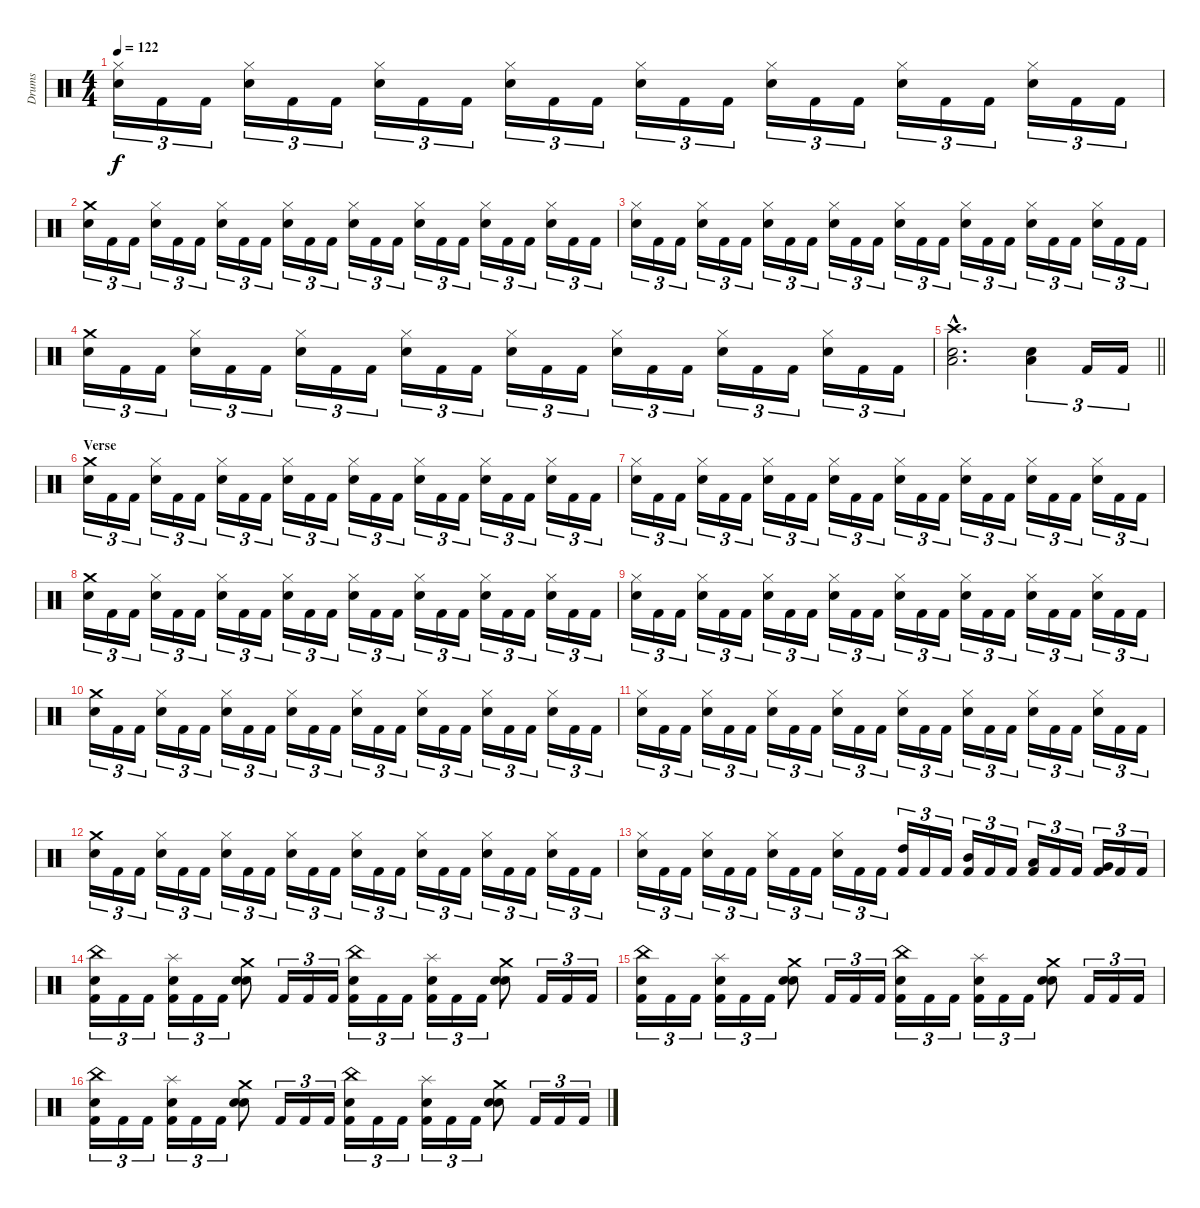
\track ("Drums" "Drums") {instrument percussion}
\staff {score}
\articulation defaults
\ts (4 4)
\tempo 122
\clef neutral
\ks c
("Hi-Hat (closed)" "Electric Snare (hit)").16{tu (3 2) dy f} "Kick (hit) 2".16{tu (3 2)} "Kick (hit) 2".16{tu (3 2)} ("Hi-Hat (closed)" "Electric Snare (hit)").16{tu (3 2)} "Kick (hit) 2".16{tu (3 2)} "Kick (hit) 2".16{tu (3 2)} ("Hi-Hat (closed)" "Electric Snare (hit)").16{tu (3 2)} "Kick (hit) 2".16{tu (3 2)} "Kick (hit) 2".16{tu (3 2)} ("Hi-Hat (closed)" "Electric Snare (hit)").16{tu (3 2)} "Kick (hit) 2".16{tu (3 2)} "Kick (hit) 2".16{tu (3 2)} ("Hi-Hat (closed)" "Electric Snare (hit)").16{tu (3 2)} "Kick (hit) 2".16{tu (3 2)} "Kick (hit) 2".16{tu (3 2)} ("Hi-Hat (closed)" "Electric Snare (hit)").16{tu (3 2)} "Kick (hit) 2".16{tu (3 2)} "Kick (hit) 2".16{tu (3 2)} ("Hi-Hat (closed)" "Electric Snare (hit)").16{tu (3 2)} "Kick (hit) 2".16{tu (3 2)} "Kick (hit) 2".16{tu (3 2)} ("Hi-Hat (closed)" "Electric Snare (hit)").16{tu (3 2)} "Kick (hit) 2".16{tu (3 2)} "Kick (hit) 2".16{tu (3 2)} |
("Crash medium (hit)" "Electric Snare (hit)").16{tu (3 2)} "Kick (hit) 2".16{tu (3 2)} "Kick (hit) 2".16{tu (3 2)} ("Hi-Hat (closed)" "Electric Snare (hit)").16{tu (3 2)} "Kick (hit) 2".16{tu (3 2)} "Kick (hit) 2".16{tu (3 2)} ("Hi-Hat (closed)" "Electric Snare (hit)").16{tu (3 2)} "Kick (hit) 2".16{tu (3 2)} "Kick (hit) 2".16{tu (3 2)} ("Hi-Hat (closed)" "Electric Snare (hit)").16{tu (3 2)} "Kick (hit) 2".16{tu (3 2)} "Kick (hit) 2".16{tu (3 2)} ("Hi-Hat (closed)" "Electric Snare (hit)").16{tu (3 2)} "Kick (hit) 2".16{tu (3 2)} "Kick (hit) 2".16{tu (3 2)} ("Hi-Hat (closed)" "Electric Snare (hit)").16{tu (3 2)} "Kick (hit) 2".16{tu (3 2)} "Kick (hit) 2".16{tu (3 2)} ("Hi-Hat (closed)" "Electric Snare (hit)").16{tu (3 2)} "Kick (hit) 2".16{tu (3 2)} "Kick (hit) 2".16{tu (3 2)} ("Hi-Hat (closed)" "Electric Snare (hit)").16{tu (3 2)} "Kick (hit) 2".16{tu (3 2)} "Kick (hit) 2".16{tu (3 2)} |
("Hi-Hat (closed)" "Electric Snare (hit)").16{tu (3 2)} "Kick (hit) 2".16{tu (3 2)} "Kick (hit) 2".16{tu (3 2)} ("Hi-Hat (closed)" "Electric Snare (hit)").16{tu (3 2)} "Kick (hit) 2".16{tu (3 2)} "Kick (hit) 2".16{tu (3 2)} ("Hi-Hat (closed)" "Electric Snare (hit)").16{tu (3 2)} "Kick (hit) 2".16{tu (3 2)} "Kick (hit) 2".16{tu (3 2)} ("Hi-Hat (closed)" "Electric Snare (hit)").16{tu (3 2)} "Kick (hit) 2".16{tu (3 2)} "Kick (hit) 2".16{tu (3 2)} ("Hi-Hat (closed)" "Electric Snare (hit)").16{tu (3 2)} "Kick (hit) 2".16{tu (3 2)} "Kick (hit) 2".16{tu (3 2)} ("Hi-Hat (closed)" "Electric Snare (hit)").16{tu (3 2)} "Kick (hit) 2".16{tu (3 2)} "Kick (hit) 2".16{tu (3 2)} ("Hi-Hat (closed)" "Electric Snare (hit)").16{tu (3 2)} "Kick (hit) 2".16{tu (3 2)} "Kick (hit) 2".16{tu (3 2)} ("Hi-Hat (closed)" "Electric Snare (hit)").16{tu (3 2)} "Kick (hit) 2".16{tu (3 2)} "Kick (hit) 2".16{tu (3 2)} |
("Crash medium (hit)" "Electric Snare (hit)").16{tu (3 2)} "Kick (hit) 2".16{tu (3 2)} "Kick (hit) 2".16{tu (3 2)} ("Hi-Hat (closed)" "Electric Snare (hit)").16{tu (3 2)} "Kick (hit) 2".16{tu (3 2)} "Kick (hit) 2".16{tu (3 2)} ("Hi-Hat (closed)" "Electric Snare (hit)").16{tu (3 2)} "Kick (hit) 2".16{tu (3 2)} "Kick (hit) 2".16{tu (3 2)} ("Hi-Hat (closed)" "Electric Snare (hit)").16{tu (3 2)} "Kick (hit) 2".16{tu (3 2)} "Kick (hit) 2".16{tu (3 2)} ("Hi-Hat (closed)" "Electric Snare (hit)").16{tu (3 2)} "Kick (hit) 2".16{tu (3 2)} "Kick (hit) 2".16{tu (3 2)} ("Hi-Hat (closed)" "Electric Snare (hit)").16{tu (3 2)} "Kick (hit) 2".16{tu (3 2)} "Kick (hit) 2".16{tu (3 2)} ("Hi-Hat (closed)" "Electric Snare (hit)").16{tu (3 2)} "Kick (hit) 2".16{tu (3 2)} "Kick (hit) 2".16{tu (3 2)} ("Hi-Hat (closed)" "Electric Snare (hit)").16{tu (3 2)} "Kick (hit) 2".16{tu (3 2)} "Kick (hit) 2".16{tu (3 2)} |
\barLineRight lightlight
("Crash high (hit)"{hac} "Low Tom (hit)"{hac} "Electric Snare (hit)"{hac}).2{d} ("Low Floor Tom (hit)" "Electric Snare (hit)").4{tu (3 2)} "Kick (hit) 2".16{tu (3 2)} "Kick (hit) 2".16{tu (3 2)} |
\section ("" "Verse")
("Crash medium (hit)" "Electric Snare (hit)").16{tu (3 2)} "Kick (hit) 2".16{tu (3 2)} "Kick (hit) 2".16{tu (3 2)} ("Hi-Hat (closed)" "Electric Snare (hit)").16{tu (3 2)} "Kick (hit) 2".16{tu (3 2)} "Kick (hit) 2".16{tu (3 2)} ("Hi-Hat (closed)" "Electric Snare (hit)").16{tu (3 2)} "Kick (hit) 2".16{tu (3 2)} "Kick (hit) 2".16{tu (3 2)} ("Hi-Hat (closed)" "Electric Snare (hit)").16{tu (3 2)} "Kick (hit) 2".16{tu (3 2)} "Kick (hit) 2".16{tu (3 2)} ("Hi-Hat (closed)" "Electric Snare (hit)").16{tu (3 2)} "Kick (hit) 2".16{tu (3 2)} "Kick (hit) 2".16{tu (3 2)} ("Hi-Hat (closed)" "Electric Snare (hit)").16{tu (3 2)} "Kick (hit) 2".16{tu (3 2)} "Kick (hit) 2".16{tu (3 2)} ("Hi-Hat (closed)" "Electric Snare (hit)").16{tu (3 2)} "Kick (hit) 2".16{tu (3 2)} "Kick (hit) 2".16{tu (3 2)} ("Hi-Hat (closed)" "Electric Snare (hit)").16{tu (3 2)} "Kick (hit) 2".16{tu (3 2)} "Kick (hit) 2".16{tu (3 2)} |
("Hi-Hat (closed)" "Electric Snare (hit)").16{tu (3 2)} "Kick (hit) 2".16{tu (3 2)} "Kick (hit) 2".16{tu (3 2)} ("Hi-Hat (closed)" "Electric Snare (hit)").16{tu (3 2)} "Kick (hit) 2".16{tu (3 2)} "Kick (hit) 2".16{tu (3 2)} ("Hi-Hat (closed)" "Electric Snare (hit)").16{tu (3 2)} "Kick (hit) 2".16{tu (3 2)} "Kick (hit) 2".16{tu (3 2)} ("Hi-Hat (closed)" "Electric Snare (hit)").16{tu (3 2)} "Kick (hit) 2".16{tu (3 2)} "Kick (hit) 2".16{tu (3 2)} ("Hi-Hat (closed)" "Electric Snare (hit)").16{tu (3 2)} "Kick (hit) 2".16{tu (3 2)} "Kick (hit) 2".16{tu (3 2)} ("Hi-Hat (closed)" "Electric Snare (hit)").16{tu (3 2)} "Kick (hit) 2".16{tu (3 2)} "Kick (hit) 2".16{tu (3 2)} ("Hi-Hat (closed)" "Electric Snare (hit)").16{tu (3 2)} "Kick (hit) 2".16{tu (3 2)} "Kick (hit) 2".16{tu (3 2)} ("Hi-Hat (closed)" "Electric Snare (hit)").16{tu (3 2)} "Kick (hit) 2".16{tu (3 2)} "Kick (hit) 2".16{tu (3 2)} |
("Crash medium (hit)" "Electric Snare (hit)").16{tu (3 2)} "Kick (hit) 2".16{tu (3 2)} "Kick (hit) 2".16{tu (3 2)} ("Hi-Hat (closed)" "Electric Snare (hit)").16{tu (3 2)} "Kick (hit) 2".16{tu (3 2)} "Kick (hit) 2".16{tu (3 2)} ("Hi-Hat (closed)" "Electric Snare (hit)").16{tu (3 2)} "Kick (hit) 2".16{tu (3 2)} "Kick (hit) 2".16{tu (3 2)} ("Hi-Hat (closed)" "Electric Snare (hit)").16{tu (3 2)} "Kick (hit) 2".16{tu (3 2)} "Kick (hit) 2".16{tu (3 2)} ("Hi-Hat (closed)" "Electric Snare (hit)").16{tu (3 2)} "Kick (hit) 2".16{tu (3 2)} "Kick (hit) 2".16{tu (3 2)} ("Hi-Hat (closed)" "Electric Snare (hit)").16{tu (3 2)} "Kick (hit) 2".16{tu (3 2)} "Kick (hit) 2".16{tu (3 2)} ("Hi-Hat (closed)" "Electric Snare (hit)").16{tu (3 2)} "Kick (hit) 2".16{tu (3 2)} "Kick (hit) 2".16{tu (3 2)} ("Hi-Hat (closed)" "Electric Snare (hit)").16{tu (3 2)} "Kick (hit) 2".16{tu (3 2)} "Kick (hit) 2".16{tu (3 2)} |
("Hi-Hat (closed)" "Electric Snare (hit)").16{tu (3 2)} "Kick (hit) 2".16{tu (3 2)} "Kick (hit) 2".16{tu (3 2)} ("Hi-Hat (closed)" "Electric Snare (hit)").16{tu (3 2)} "Kick (hit) 2".16{tu (3 2)} "Kick (hit) 2".16{tu (3 2)} ("Hi-Hat (closed)" "Electric Snare (hit)").16{tu (3 2)} "Kick (hit) 2".16{tu (3 2)} "Kick (hit) 2".16{tu (3 2)} ("Hi-Hat (closed)" "Electric Snare (hit)").16{tu (3 2)} "Kick (hit) 2".16{tu (3 2)} "Kick (hit) 2".16{tu (3 2)} ("Hi-Hat (closed)" "Electric Snare (hit)").16{tu (3 2)} "Kick (hit) 2".16{tu (3 2)} "Kick (hit) 2".16{tu (3 2)} ("Hi-Hat (closed)" "Electric Snare (hit)").16{tu (3 2)} "Kick (hit) 2".16{tu (3 2)} "Kick (hit) 2".16{tu (3 2)} ("Hi-Hat (closed)" "Electric Snare (hit)").16{tu (3 2)} "Kick (hit) 2".16{tu (3 2)} "Kick (hit) 2".16{tu (3 2)} ("Hi-Hat (closed)" "Electric Snare (hit)").16{tu (3 2)} "Kick (hit) 2".16{tu (3 2)} "Kick (hit) 2".16{tu (3 2)} |
("Crash medium (hit)" "Electric Snare (hit)").16{tu (3 2)} "Kick (hit) 2".16{tu (3 2)} "Kick (hit) 2".16{tu (3 2)} ("Hi-Hat (closed)" "Electric Snare (hit)").16{tu (3 2)} "Kick (hit) 2".16{tu (3 2)} "Kick (hit) 2".16{tu (3 2)} ("Hi-Hat (closed)" "Electric Snare (hit)").16{tu (3 2)} "Kick (hit) 2".16{tu (3 2)} "Kick (hit) 2".16{tu (3 2)} ("Hi-Hat (closed)" "Electric Snare (hit)").16{tu (3 2)} "Kick (hit) 2".16{tu (3 2)} "Kick (hit) 2".16{tu (3 2)} ("Hi-Hat (closed)" "Electric Snare (hit)").16{tu (3 2)} "Kick (hit) 2".16{tu (3 2)} "Kick (hit) 2".16{tu (3 2)} ("Hi-Hat (closed)" "Electric Snare (hit)").16{tu (3 2)} "Kick (hit) 2".16{tu (3 2)} "Kick (hit) 2".16{tu (3 2)} ("Hi-Hat (closed)" "Electric Snare (hit)").16{tu (3 2)} "Kick (hit) 2".16{tu (3 2)} "Kick (hit) 2".16{tu (3 2)} ("Hi-Hat (closed)" "Electric Snare (hit)").16{tu (3 2)} "Kick (hit) 2".16{tu (3 2)} "Kick (hit) 2".16{tu (3 2)} |
("Hi-Hat (closed)" "Electric Snare (hit)").16{tu (3 2)} "Kick (hit) 2".16{tu (3 2)} "Kick (hit) 2".16{tu (3 2)} ("Hi-Hat (closed)" "Electric Snare (hit)").16{tu (3 2)} "Kick (hit) 2".16{tu (3 2)} "Kick (hit) 2".16{tu (3 2)} ("Hi-Hat (closed)" "Electric Snare (hit)").16{tu (3 2)} "Kick (hit) 2".16{tu (3 2)} "Kick (hit) 2".16{tu (3 2)} ("Hi-Hat (closed)" "Electric Snare (hit)").16{tu (3 2)} "Kick (hit) 2".16{tu (3 2)} "Kick (hit) 2".16{tu (3 2)} ("Hi-Hat (closed)" "Electric Snare (hit)").16{tu (3 2)} "Kick (hit) 2".16{tu (3 2)} "Kick (hit) 2".16{tu (3 2)} ("Hi-Hat (closed)" "Electric Snare (hit)").16{tu (3 2)} "Kick (hit) 2".16{tu (3 2)} "Kick (hit) 2".16{tu (3 2)} ("Hi-Hat (closed)" "Electric Snare (hit)").16{tu (3 2)} "Kick (hit) 2".16{tu (3 2)} "Kick (hit) 2".16{tu (3 2)} ("Hi-Hat (closed)" "Electric Snare (hit)").16{tu (3 2)} "Kick (hit) 2".16{tu (3 2)} "Kick (hit) 2".16{tu (3 2)} |
("Crash medium (hit)" "Electric Snare (hit)").16{tu (3 2)} "Kick (hit) 2".16{tu (3 2)} "Kick (hit) 2".16{tu (3 2)} ("Hi-Hat (closed)" "Electric Snare (hit)").16{tu (3 2)} "Kick (hit) 2".16{tu (3 2)} "Kick (hit) 2".16{tu (3 2)} ("Hi-Hat (closed)" "Electric Snare (hit)").16{tu (3 2)} "Kick (hit) 2".16{tu (3 2)} "Kick (hit) 2".16{tu (3 2)} ("Hi-Hat (closed)" "Electric Snare (hit)").16{tu (3 2)} "Kick (hit) 2".16{tu (3 2)} "Kick (hit) 2".16{tu (3 2)} ("Hi-Hat (closed)" "Electric Snare (hit)").16{tu (3 2)} "Kick (hit) 2".16{tu (3 2)} "Kick (hit) 2".16{tu (3 2)} ("Hi-Hat (closed)" "Electric Snare (hit)").16{tu (3 2)} "Kick (hit) 2".16{tu (3 2)} "Kick (hit) 2".16{tu (3 2)} ("Hi-Hat (closed)" "Electric Snare (hit)").16{tu (3 2)} "Kick (hit) 2".16{tu (3 2)} "Kick (hit) 2".16{tu (3 2)} ("Hi-Hat (closed)" "Electric Snare (hit)").16{tu (3 2)} "Kick (hit) 2".16{tu (3 2)} "Kick (hit) 2".16{tu (3 2)} |
("Hi-Hat (closed)" "Electric Snare (hit)").16{tu (3 2)} "Kick (hit) 2".16{tu (3 2)} "Kick (hit) 2".16{tu (3 2)} ("Hi-Hat (closed)" "Electric Snare (hit)").16{tu (3 2)} "Kick (hit) 2".16{tu (3 2)} "Kick (hit) 2".16{tu (3 2)} ("Hi-Hat (closed)" "Electric Snare (hit)").16{tu (3 2)} "Kick (hit) 2".16{tu (3 2)} "Kick (hit) 2".16{tu (3 2)} ("Hi-Hat (closed)" "Electric Snare (hit)").16{tu (3 2)} "Kick (hit) 2".16{tu (3 2)} "Kick (hit) 2".16{tu (3 2)} ("High Tom (hit)" "Kick (hit) 2").16{tu (3 2)} "Kick (hit) 2".16{tu (3 2)} "Kick (hit) 2".16{tu (3 2)} ("Mid Tom (hit)" "Kick (hit) 2").16{tu (3 2)} "Kick (hit) 2".16{tu (3 2)} "Kick (hit) 2".16{tu (3 2)} ("Low Tom (hit)" "Kick (hit) 2").16{tu (3 2)} "Kick (hit) 2".16{tu (3 2)} "Kick (hit) 2".16{tu (3 2)} ("Very Low Tom (hit)" "Kick (hit) 2").16{tu (3 2)} "Kick (hit) 2".16{tu (3 2)} "Kick (hit) 2".16{tu (3 2)} |
("China (hit)" "Electric Snare (hit)" "Kick (hit) 2").16{tu (3 2)} "Kick (hit) 2".16{tu (3 2)} "Kick (hit) 2".16{tu (3 2)} ("Splash (hit)" "Electric Snare (hit)" "Kick (hit) 2").16{tu (3 2)} "Kick (hit) 2".16{tu (3 2)} "Kick (hit) 2".16{tu (3 2)} ("Crash medium (hit)" "Electric Snare (hit)" "Electric Snare (hit)").8 "Kick (hit) 2".16{tu (3 2)} "Kick (hit) 2".16{tu (3 2)} "Kick (hit) 2".16{tu (3 2)} ("China (hit)" "Electric Snare (hit)" "Kick (hit) 2").16{tu (3 2)} "Kick (hit) 2".16{tu (3 2)} "Kick (hit) 2".16{tu (3 2)} ("Splash (hit)" "Electric Snare (hit)" "Kick (hit) 2").16{tu (3 2)} "Kick (hit) 2".16{tu (3 2)} "Kick (hit) 2".16{tu (3 2)} ("Crash medium (hit)" "Electric Snare (hit)" "Electric Snare (hit)").8 "Kick (hit) 2".16{tu (3 2)} "Kick (hit) 2".16{tu (3 2)} "Kick (hit) 2".16{tu (3 2)} |
("China (hit)" "Electric Snare (hit)" "Kick (hit) 2").16{tu (3 2)} "Kick (hit) 2".16{tu (3 2)} "Kick (hit) 2".16{tu (3 2)} ("Splash (hit)" "Electric Snare (hit)" "Kick (hit) 2").16{tu (3 2)} "Kick (hit) 2".16{tu (3 2)} "Kick (hit) 2".16{tu (3 2)} ("Crash medium (hit)" "Electric Snare (hit)" "Electric Snare (hit)").8 "Kick (hit) 2".16{tu (3 2)} "Kick (hit) 2".16{tu (3 2)} "Kick (hit) 2".16{tu (3 2)} ("China (hit)" "Electric Snare (hit)" "Kick (hit) 2").16{tu (3 2)} "Kick (hit) 2".16{tu (3 2)} "Kick (hit) 2".16{tu (3 2)} ("Splash (hit)" "Electric Snare (hit)" "Kick (hit) 2").16{tu (3 2)} "Kick (hit) 2".16{tu (3 2)} "Kick (hit) 2".16{tu (3 2)} ("Crash medium (hit)" "Electric Snare (hit)" "Electric Snare (hit)").8 "Kick (hit) 2".16{tu (3 2)} "Kick (hit) 2".16{tu (3 2)} "Kick (hit) 2".16{tu (3 2)} |
("China (hit)" "Electric Snare (hit)" "Kick (hit) 2").16{tu (3 2)} "Kick (hit) 2".16{tu (3 2)} "Kick (hit) 2".16{tu (3 2)} ("Splash (hit)" "Electric Snare (hit)" "Kick (hit) 2").16{tu (3 2)} "Kick (hit) 2".16{tu (3 2)} "Kick (hit) 2".16{tu (3 2)} ("Crash medium (hit)" "Electric Snare (hit)" "Electric Snare (hit)").8 "Kick (hit) 2".16{tu (3 2)} "Kick (hit) 2".16{tu (3 2)} "Kick (hit) 2".16{tu (3 2)} ("China (hit)" "Electric Snare (hit)" "Kick (hit) 2").16{tu (3 2)} "Kick (hit) 2".16{tu (3 2)} "Kick (hit) 2".16{tu (3 2)} ("Splash (hit)" "Electric Snare (hit)" "Kick (hit) 2").16{tu (3 2)} "Kick (hit) 2".16{tu (3 2)} "Kick (hit) 2".16{tu (3 2)} ("Crash medium (hit)" "Electric Snare (hit)" "Electric Snare (hit)").8 "Kick (hit) 2".16{tu (3 2)} "Kick (hit) 2".16{tu (3 2)} "Kick (hit) 2".16{tu (3 2)}
